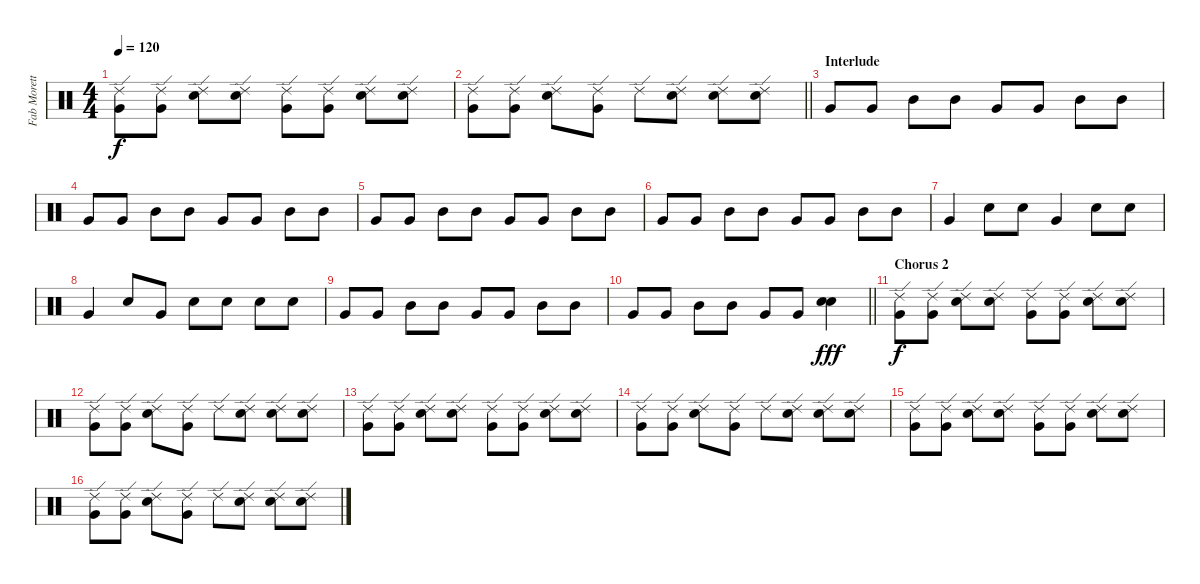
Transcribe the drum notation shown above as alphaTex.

\track ("Fab Moretti - Drums" "Fab Morett") {instrument percussion}
\staff {score}
\articulation defaults
\ts (4 4)
\tempo 120
\clef neutral
\ks c
("Ride (edge) 2" "Very Low Tom (hit)").8{dy f} ("Ride (edge) 2" "Very Low Tom (hit)").8 ("Ride (edge) 2" "Electric Snare (hit)").8 ("Ride (edge) 2" "Electric Snare (hit)").8 ("Ride (edge) 2" "Very Low Tom (hit)").8 ("Ride (edge) 2" "Very Low Tom (hit)").8 ("Ride (edge) 2" "Electric Snare (hit)").8 ("Ride (edge) 2" "Electric Snare (hit)").8 |
\barLineRight lightlight
("Ride (edge) 2" "Very Low Tom (hit)").8 ("Ride (edge) 2" "Very Low Tom (hit)").8 ("Ride (edge) 2" "Electric Snare (hit)").8 ("Ride (edge) 2" "Very Low Tom (hit)").8 "Ride (edge) 2".8 ("Ride (edge) 2" "Electric Snare (hit)").8 ("Ride (edge) 2" "Electric Snare (hit)").8 ("Ride (edge) 2" "Electric Snare (hit)").8 |
\section ("" "Interlude")
"Very Low Tom (hit)".8 "Very Low Tom (hit)".8 "Mid Tom (hit)".8 "Mid Tom (hit)".8 "Very Low Tom (hit)".8 "Very Low Tom (hit)".8 "Mid Tom (hit)".8 "Mid Tom (hit)".8 |
"Very Low Tom (hit)".8 "Very Low Tom (hit)".8 "Mid Tom (hit)".8 "Mid Tom (hit)".8 "Very Low Tom (hit)".8 "Very Low Tom (hit)".8 "Mid Tom (hit)".8 "Mid Tom (hit)".8 |
"Very Low Tom (hit)".8 "Very Low Tom (hit)".8 "Mid Tom (hit)".8 "Mid Tom (hit)".8 "Very Low Tom (hit)".8 "Very Low Tom (hit)".8 "Mid Tom (hit)".8 "Mid Tom (hit)".8 |
"Very Low Tom (hit)".8 "Very Low Tom (hit)".8 "Mid Tom (hit)".8 "Mid Tom (hit)".8 "Very Low Tom (hit)".8 "Very Low Tom (hit)".8 "Mid Tom (hit)".8 "Mid Tom (hit)".8 |
"Very Low Tom (hit)".4 "Electric Snare (hit)".8 "Electric Snare (hit)".8 "Very Low Tom (hit)".4 "Electric Snare (hit)".8 "Electric Snare (hit)".8 |
"Very Low Tom (hit)".4 "Electric Snare (hit)".8 "Very Low Tom (hit)".8 "Electric Snare (hit)".8 "Electric Snare (hit)".8 "Electric Snare (hit)".8 "Electric Snare (hit)".8 |
"Very Low Tom (hit)".8 "Very Low Tom (hit)".8 "Mid Tom (hit)".8 "Mid Tom (hit)".8 "Very Low Tom (hit)".8 "Very Low Tom (hit)".8 "Mid Tom (hit)".8 "Mid Tom (hit)".8 |
\barLineRight lightlight "Very Low Tom (hit)".8 "Very Low Tom (hit)".8 "Mid Tom (hit)".8 "Mid Tom (hit)".8 "Very Low Tom (hit)".8 "Very Low Tom (hit)".8
("Electric Snare (hit)" "Electric Snare (hit)").4{dy fff} |
\section ("" "Chorus 2")
("Ride (edge) 2" "Very Low Tom (hit)").8{dy f} ("Ride (edge) 2" "Very Low Tom (hit)").8 ("Ride (edge) 2" "Electric Snare (hit)").8 ("Ride (edge) 2" "Electric Snare (hit)").8 ("Ride (edge) 2" "Very Low Tom (hit)").8 ("Ride (edge) 2" "Very Low Tom (hit)").8 ("Ride (edge) 2" "Electric Snare (hit)").8 ("Ride (edge) 2" "Electric Snare (hit)").8 |
("Ride (edge) 2" "Very Low Tom (hit)").8 ("Ride (edge) 2" "Very Low Tom (hit)").8 ("Ride (edge) 2" "Electric Snare (hit)").8 ("Ride (edge) 2" "Very Low Tom (hit)").8 "Ride (edge) 2".8 ("Ride (edge) 2" "Electric Snare (hit)").8 ("Ride (edge) 2" "Electric Snare (hit)").8 ("Ride (edge) 2" "Electric Snare (hit)").8 |
("Ride (edge) 2" "Very Low Tom (hit)").8 ("Ride (edge) 2" "Very Low Tom (hit)").8 ("Ride (edge) 2" "Electric Snare (hit)").8 ("Ride (edge) 2" "Electric Snare (hit)").8 ("Ride (edge) 2" "Very Low Tom (hit)").8 ("Ride (edge) 2" "Very Low Tom (hit)").8 ("Ride (edge) 2" "Electric Snare (hit)").8 ("Ride (edge) 2" "Electric Snare (hit)").8 |
("Ride (edge) 2" "Very Low Tom (hit)").8 ("Ride (edge) 2" "Very Low Tom (hit)").8 ("Ride (edge) 2" "Electric Snare (hit)").8 ("Ride (edge) 2" "Very Low Tom (hit)").8 "Ride (edge) 2".8 ("Ride (edge) 2" "Electric Snare (hit)").8 ("Ride (edge) 2" "Electric Snare (hit)").8 ("Ride (edge) 2" "Electric Snare (hit)").8 |
("Ride (edge) 2" "Very Low Tom (hit)").8 ("Ride (edge) 2" "Very Low Tom (hit)").8 ("Ride (edge) 2" "Electric Snare (hit)").8 ("Ride (edge) 2" "Electric Snare (hit)").8 ("Ride (edge) 2" "Very Low Tom (hit)").8 ("Ride (edge) 2" "Very Low Tom (hit)").8 ("Ride (edge) 2" "Electric Snare (hit)").8 ("Ride (edge) 2" "Electric Snare (hit)").8 |
("Ride (edge) 2" "Very Low Tom (hit)").8 ("Ride (edge) 2" "Very Low Tom (hit)").8 ("Ride (edge) 2" "Electric Snare (hit)").8 ("Ride (edge) 2" "Very Low Tom (hit)").8 "Ride (edge) 2".8 ("Ride (edge) 2" "Electric Snare (hit)").8 ("Ride (edge) 2" "Electric Snare (hit)").8 ("Ride (edge) 2" "Electric Snare (hit)").8
